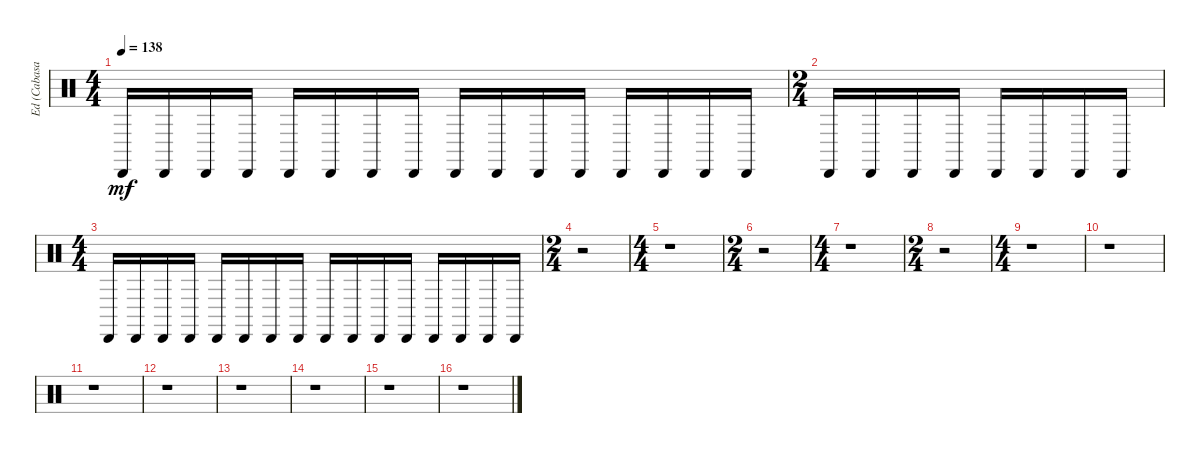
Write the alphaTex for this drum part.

\track ("Ed (Cabasa)" "Ed (Cabasa") {instrument percussion}
\staff {score}
\articulation defaults
\ts (4 4)
\tempo 138
\clef neutral
\ks c "Cabasa (hit)".16{dy mf} "Cabasa (hit)".16 "Cabasa (hit)".16 "Cabasa (hit)".16 "Cabasa (hit)".16 "Cabasa (hit)".16 "Cabasa (hit)".16 "Cabasa (hit)".16 "Cabasa (hit)".16 "Cabasa (hit)".16 "Cabasa (hit)".16 "Cabasa (hit)".16 "Cabasa (hit)".16 "Cabasa (hit)".16 "Cabasa (hit)".16 "Cabasa (hit)".16
|
\ts (2 4)
"Cabasa (hit)".16 "Cabasa (hit)".16 "Cabasa (hit)".16 "Cabasa (hit)".16 "Cabasa (hit)".16 "Cabasa (hit)".16 "Cabasa (hit)".16 "Cabasa (hit)".16 |
\ts (4 4)
"Cabasa (hit)".16 "Cabasa (hit)".16 "Cabasa (hit)".16 "Cabasa (hit)".16 "Cabasa (hit)".16 "Cabasa (hit)".16 "Cabasa (hit)".16 "Cabasa (hit)".16 "Cabasa (hit)".16 "Cabasa (hit)".16 "Cabasa (hit)".16 "Cabasa (hit)".16 "Cabasa (hit)".16 "Cabasa (hit)".16 "Cabasa (hit)".16 "Cabasa (hit)".16 |
\ts (2 4)
r.2 |
\ts (4 4)
r.1 |
\ts (2 4)
r.2 |
\ts (4 4)
r.1 |
\ts (2 4)
r.2 |
\ts (4 4)
r.1 |
r.1 |
r.1 |
r.1 |
r.1 |
r.1 |
r.1 |
r.1
